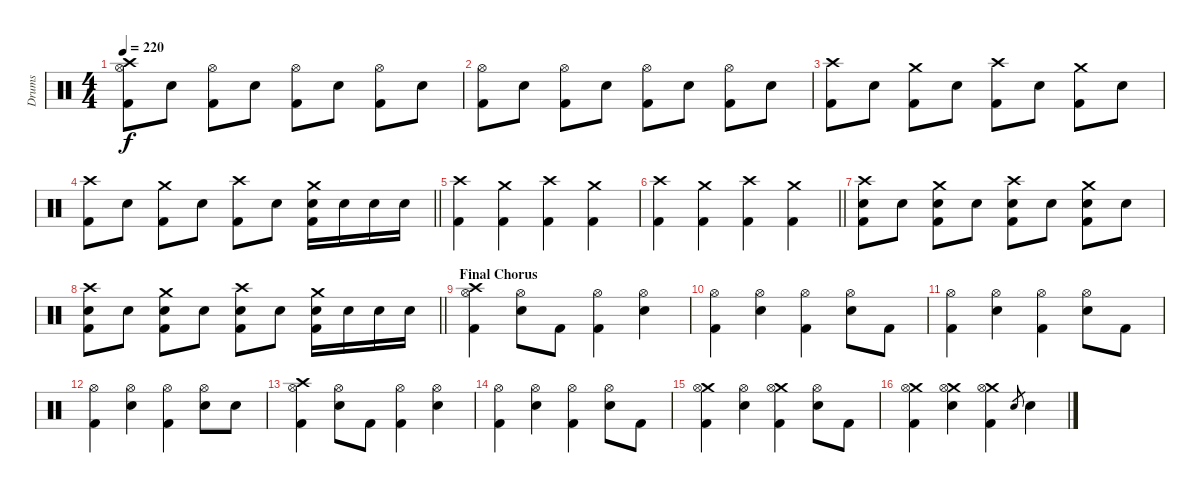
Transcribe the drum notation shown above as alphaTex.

\track ("Drums" "Drums") {instrument percussion}
\staff {score}
\articulation defaults
\ts (4 4)
\tempo 220
\clef neutral
\ks c
("Crash high (hit)" "Hi-Hat (open)" "Kick (hit) 2").8{dy f} "Snare (hit) 2".8 ("Hi-Hat (open)" "Kick (hit) 2").8 "Snare (hit) 2".8 ("Hi-Hat (open)" "Kick (hit) 2").8 "Snare (hit) 2".8 ("Hi-Hat (open)" "Kick (hit) 2").8 "Snare (hit) 2".8 |
("Hi-Hat (open)" "Kick (hit) 2").8 "Snare (hit) 2".8 ("Hi-Hat (open)" "Kick (hit) 2").8 "Snare (hit) 2".8 ("Hi-Hat (open)" "Kick (hit) 2").8 "Snare (hit) 2".8 ("Hi-Hat (open)" "Kick (hit) 2").8 "Snare (hit) 2".8 |
("Crash high (hit)" "Kick (hit) 2").8 "Snare (hit) 2".8 ("Crash medium (hit)" "Kick (hit) 2").8 "Snare (hit) 2".8 ("Crash high (hit)" "Kick (hit) 2").8 "Snare (hit) 2".8 ("Crash medium (hit)" "Kick (hit) 2").8 "Snare (hit) 2".8 |
\barLineRight lightlight
("Crash high (hit)" "Kick (hit) 2").8 "Snare (hit) 2".8 ("Crash medium (hit)" "Kick (hit) 2").8 "Snare (hit) 2".8 ("Crash high (hit)" "Kick (hit) 2").8 "Snare (hit) 2".8 ("Crash medium (hit)" "Snare (hit) 2" "Kick (hit) 2").16 "Snare (hit) 2".16 "Snare (hit) 2".16 "Snare (hit) 2".16 |
("Crash high (hit)" "Kick (hit) 2").4 ("Crash medium (hit)" "Kick (hit) 2").4 ("Crash high (hit)" "Kick (hit) 2").4 ("Crash medium (hit)" "Kick (hit) 2").4 |
\barLineRight lightlight
("Crash high (hit)" "Kick (hit) 2").4 ("Crash medium (hit)" "Kick (hit) 2").4 ("Crash high (hit)" "Kick (hit) 2").4 ("Crash medium (hit)" "Kick (hit) 2").4 |
("Crash high (hit)" "Snare (hit) 2" "Kick (hit) 2").8 "Snare (hit) 2".8 ("Crash medium (hit)" "Snare (hit) 2" "Kick (hit) 2").8 "Snare (hit) 2".8 ("Crash high (hit)" "Snare (hit) 2" "Kick (hit) 2").8 "Snare (hit) 2".8 ("Crash medium (hit)" "Snare (hit) 2" "Kick (hit) 2").8 "Snare (hit) 2".8 |
\barLineRight lightlight
("Crash high (hit)" "Snare (hit) 2" "Kick (hit) 2").8 "Snare (hit) 2".8 ("Crash medium (hit)" "Snare (hit) 2" "Kick (hit) 2").8 "Snare (hit) 2".8 ("Crash high (hit)" "Snare (hit) 2" "Kick (hit) 2").8 "Snare (hit) 2".8 ("Crash medium (hit)" "Snare (hit) 2" "Kick (hit) 2").16 "Snare (hit) 2".16 "Snare (hit) 2".16 "Snare (hit) 2".16 |
\section ("" "Final Chorus")
("Crash high (hit)" "Hi-Hat (open)" "Kick (hit) 2").4 ("Hi-Hat (open)" "Snare (hit) 2").8 "Kick (hit) 2".8 ("Hi-Hat (open)" "Kick (hit) 2").4 ("Hi-Hat (open)" "Snare (hit) 2").4 |
("Hi-Hat (open)" "Kick (hit) 2").4 ("Hi-Hat (open)" "Snare (hit) 2").4 ("Hi-Hat (open)" "Kick (hit) 2").4 ("Hi-Hat (open)" "Snare (hit) 2").8 "Kick (hit) 2".8 |
("Hi-Hat (open)" "Kick (hit) 2").4 ("Hi-Hat (open)" "Snare (hit) 2").4 ("Hi-Hat (open)" "Kick (hit) 2").4 ("Hi-Hat (open)" "Snare (hit) 2").8 "Kick (hit) 2".8 |
("Hi-Hat (open)" "Kick (hit) 2").4 ("Hi-Hat (open)" "Snare (hit) 2").4 ("Hi-Hat (open)" "Kick (hit) 2").4 ("Hi-Hat (open)" "Snare (hit) 2").8 "Snare (hit) 2".8 |
("Crash high (hit)" "Hi-Hat (open)" "Kick (hit) 2").4 ("Hi-Hat (open)" "Snare (hit) 2").8 "Kick (hit) 2".8 ("Hi-Hat (open)" "Kick (hit) 2").4 ("Hi-Hat (open)" "Snare (hit) 2").4 |
("Hi-Hat (open)" "Kick (hit) 2").4 ("Hi-Hat (open)" "Snare (hit) 2").4 ("Hi-Hat (open)" "Kick (hit) 2").4 ("Hi-Hat (open)" "Snare (hit) 2").8 "Kick (hit) 2".8 |
("Crash medium (hit)" "Hi-Hat (open)" "Kick (hit) 2").4 ("Hi-Hat (open)" "Snare (hit) 2").4 ("Crash medium (hit)" "Hi-Hat (open)" "Kick (hit) 2").4 ("Hi-Hat (open)" "Snare (hit) 2").8 "Kick (hit) 2".8 |
("Crash medium (hit)" "Hi-Hat (open)" "Kick (hit) 2").4 ("Crash medium (hit)" "Hi-Hat (open)" "Snare (hit) 2").4 ("Crash medium (hit)" "Hi-Hat (open)" "Kick (hit) 2").4 "Snare (hit) 2".8{gr} "Snare (hit) 2".4
